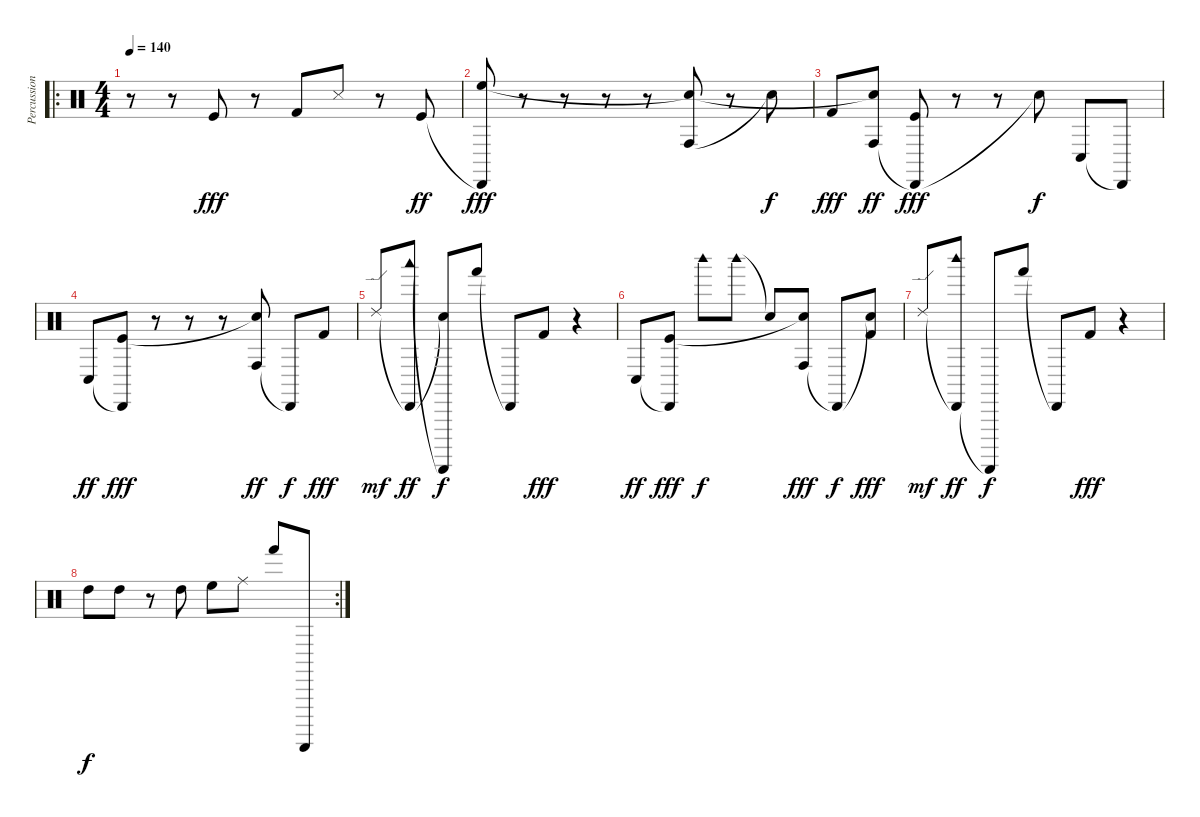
\track ("Percussions" "Percussion") {instrument percussion}
\staff {score}
\articulation defaults
\ro
\ts (4 4)
\tempo 140
\clef neutral
\ks c
r.8{dy f} r.8 "Kick (hit)".8{dy fff balance 1} r.8 "Kick (hit) 2".8{balance 13} "Snare (side stick) 3".8{balance 6} r.8 "Kick (hit)".8{dy ff balance 1} |
("Cabasa (hit)"{t} "High Floor Tom (hit)").8{dy fff balance 0} r.8 r.8 r.8 r.8 ("Conga high (hit)" "Snare (hit)"{t}).8{balance 16} r.8 "Snare (hit)"{t}.8{dy f} |
"Kick (hit) 2".8{dy fff balance 12} ("Conga high (hit)" "Snare (hit)"{t}).8{dy ff balance 15} ("Cabasa (hit)"{t} "Kick (hit)").8{dy fff balance 1} r.8 r.8 "Snare (hit)"{t}.8{dy f} "Conga low (hit)".8 "Cabasa (hit)"{t}.8 |
"Conga low (hit)".8{dy ff balance 0} ("Cabasa (hit)"{t} "Kick (hit)").8{dy fff balance 1} r.8 r.8 r.8 ("Conga high (hit)" "Snare (hit)"{t}).8{dy ff balance 1} "Cabasa (hit)"{t}.8{dy f} "Kick (hit) 2".8{dy fff balance 2} |
"Ride (edge) 2".8{dy mf balance 0} ("Cabasa (hit)"{t} "Woodblock low (hit)").8{dy ff balance 16} ("Snare (hit)"{t} "Guiro (scrap-return)"{t}).8{dy f} "Hand (hit)".8{balance 0} "Cabasa (hit)"{t}.8 "Kick (hit) 2".8{dy fff balance 15} r.4 |
"Conga low (hit)".8{dy ff} ("Cabasa (hit)"{t} "Kick (hit)").8{dy fff balance 1} "Woodblock high (hit)".8{dy f balance 0} "Woodblock high (hit)".8{balance 16} "Snare (hit)"{t}.8 ("Conga high (hit)" "Snare (hit)"{t}).8{dy fff balance 16} "Cabasa (hit)"{t}.8{dy f} ("Snare (hit)"{t} "Kick (hit) 2").8{dy fff} |
"Ride (edge) 2".8{dy mf} ("Cabasa (hit)"{t} "Woodblock high (hit)").8{dy ff} "Guiro (scrap-return)"{t}.8{dy f} "Hand (hit)".8{balance 0} "Cabasa (hit)"{t}.8 "Kick (hit) 2".8{dy fff} r.4 |
\rc 2 "High Tom (hit)".8{dy f balance 9} "High Tom (hit)".8{balance 6}
r.8 "High Tom (hit)".8{balance 2} "High Floor Tom (hit)".8{balance 4} "Ride (middle)".8{balance 6} "Hand (hit)".8{balance 11} "Guiro (scrap-return)".8{balance 15}
